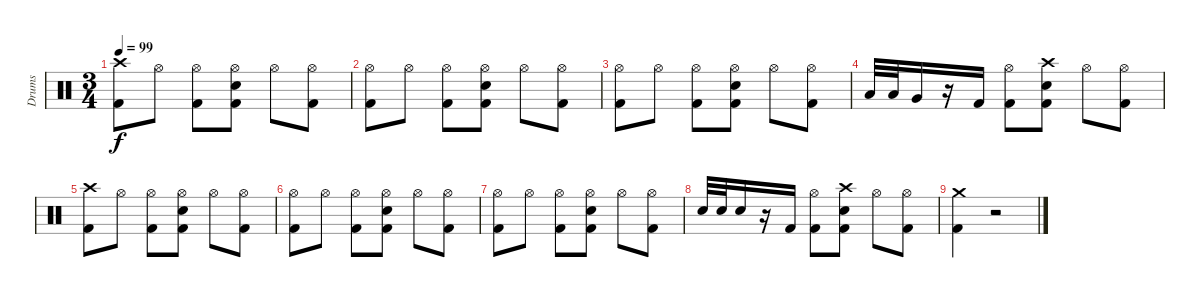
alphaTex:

\track ("Drums" "Drums") {instrument percussion}
\staff {score}
\articulation defaults
\ts (3 4)
\tempo 99
\clef neutral
\ks c
("Crash high (hit)" "Kick (hit) 2").8{dy f} "Hi-Hat (open)".8 ("Hi-Hat (open)" "Kick (hit) 2").8 ("Hi-Hat (open)" "Snare (hit) 2" "Kick (hit) 2").8 "Hi-Hat (open)".8 ("Hi-Hat (open)" "Kick (hit) 2").8 |
("Hi-Hat (open)" "Kick (hit) 2").8 "Hi-Hat (open)".8 ("Hi-Hat (open)" "Kick (hit) 2").8 ("Hi-Hat (open)" "Snare (hit) 2" "Kick (hit) 2").8 "Hi-Hat (open)".8 ("Hi-Hat (open)" "Kick (hit) 2").8 |
("Hi-Hat (open)" "Kick (hit) 2").8 "Hi-Hat (open)".8 ("Hi-Hat (open)" "Kick (hit) 2").8 ("Hi-Hat (open)" "Snare (hit) 2" "Kick (hit) 2").8 "Hi-Hat (open)".8 ("Hi-Hat (open)" "Kick (hit) 2").8 |
"Low Tom (hit)".32 "Low Tom (hit)".32 "Very Low Tom (hit)".16 r.16 "Kick (hit) 2".16 ("Hi-Hat (open)" "Kick (hit) 2").8 ("Crash high (hit)" "Snare (hit) 2" "Kick (hit) 2").8 "Hi-Hat (open)".8 ("Hi-Hat (open)" "Kick (hit) 2").8 |
("Crash high (hit)" "Kick (hit) 2").8 "Hi-Hat (open)".8 ("Hi-Hat (open)" "Kick (hit) 2").8 ("Hi-Hat (open)" "Snare (hit) 2" "Kick (hit) 2").8 "Hi-Hat (open)".8 ("Hi-Hat (open)" "Kick (hit) 2").8 |
("Hi-Hat (open)" "Kick (hit) 2").8 "Hi-Hat (open)".8 ("Hi-Hat (open)" "Kick (hit) 2").8 ("Hi-Hat (open)" "Snare (hit) 2" "Kick (hit) 2").8 "Hi-Hat (open)".8 ("Hi-Hat (open)" "Kick (hit) 2").8 |
("Hi-Hat (open)" "Kick (hit) 2").8 "Hi-Hat (open)".8 ("Hi-Hat (open)" "Kick (hit) 2").8 ("Hi-Hat (open)" "Snare (hit) 2" "Kick (hit) 2").8 "Hi-Hat (open)".8 ("Hi-Hat (open)" "Kick (hit) 2").8 |
"Snare (hit) 2".32 "Snare (hit) 2".32 "Snare (hit) 2".16 r.16 "Kick (hit) 2".16 ("Hi-Hat (open)" "Kick (hit) 2").8 ("Crash high (hit)" "Snare (hit) 2" "Kick (hit) 2").8 "Hi-Hat (open)".8 ("Hi-Hat (open)" "Kick (hit) 2").8 |
("Crash medium (hit)" "Kick (hit) 2").4 r.2
